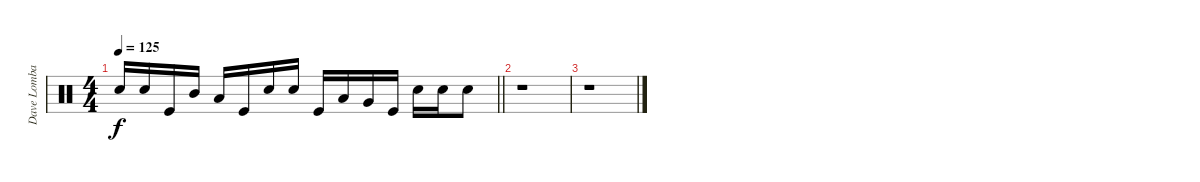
\track ("Dave Lombardo" "Dave Lomba") {instrument percussion}
\staff {score}
\articulation defaults
\ts (4 4)
\tempo 125
\clef neutral
\barLineRight lightlight
\ks c "Snare (hit) 2".16{dy f} "Snare (hit) 2".16 "Kick (hit)".16 "Mid Tom (hit)".16 "Low Tom (hit)".16 "Kick (hit)".16 "Snare (hit) 2".16 "Snare (hit) 2".16 "Kick (hit)".16 "Low Tom (hit)".16 "Very Low Tom (hit)".16 "Kick (hit)".16 "Snare (hit) 2".16 "Snare (hit) 2".16 "Snare (hit) 2".8
|
r.1 |
r.1
